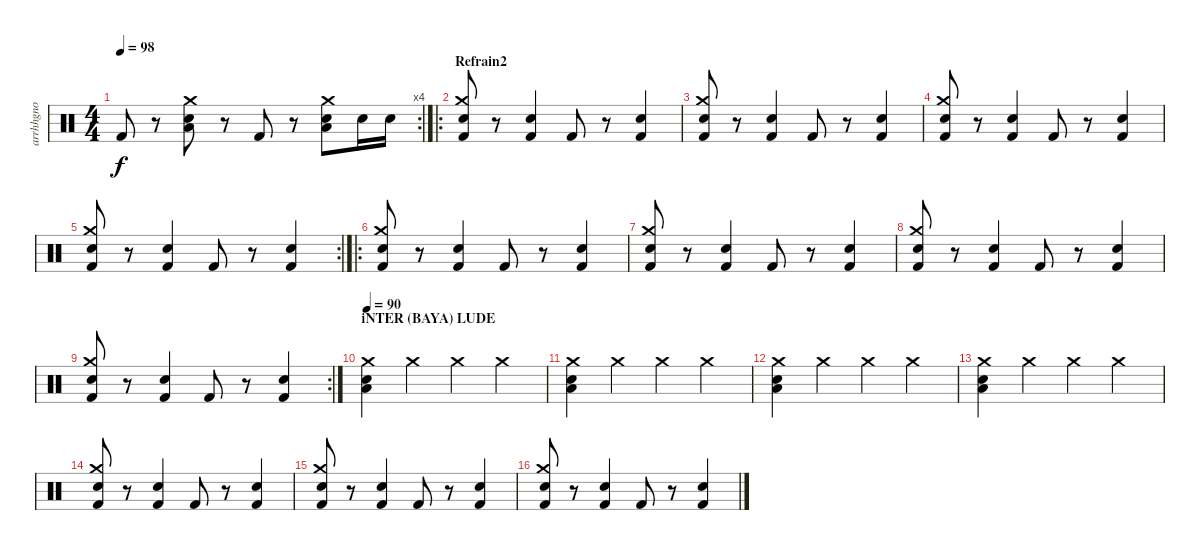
\track ("arrhhgno" "arrhhgno") {instrument percussion}
\staff {score}
\articulation defaults
\rc 4
\ts (4 4)
\tempo 98
\clef neutral
\ks c "Kick (hit) 2".8{dy f}
r.8 ("Crash medium (hit)" "Low Tom (hit)" "Electric Snare (hit)").8 r.8 "Kick (hit) 2".8 r.8 ("Crash medium (hit)" "Low Tom (hit)" "Electric Snare (hit)").8 "Electric Snare (hit)".16 "Electric Snare (hit)".16 |
\ro
\section ("" "Refrain2")
("Crash medium (hit)" "Electric Snare (hit)" "Kick (hit) 2").8 r.8 ("Kick (hit) 2" "Electric Snare (hit)").4 "Kick (hit) 2".8 r.8 ("Kick (hit) 2" "Electric Snare (hit)").4 |
("Crash medium (hit)" "Electric Snare (hit)" "Kick (hit) 2").8 r.8 ("Kick (hit) 2" "Electric Snare (hit)").4 "Kick (hit) 2".8 r.8 ("Kick (hit) 2" "Electric Snare (hit)").4 |
("Crash medium (hit)" "Electric Snare (hit)" "Kick (hit) 2").8 r.8 ("Kick (hit) 2" "Electric Snare (hit)").4 "Kick (hit) 2".8 r.8 ("Kick (hit) 2" "Electric Snare (hit)").4 |
\rc 2
("Crash medium (hit)" "Electric Snare (hit)" "Kick (hit) 2").8 r.8 ("Kick (hit) 2" "Electric Snare (hit)").4 "Kick (hit) 2".8 r.8 ("Kick (hit) 2" "Electric Snare (hit)").4 |
\ro
("Crash medium (hit)" "Electric Snare (hit)" "Kick (hit) 2").8 r.8 ("Kick (hit) 2" "Electric Snare (hit)").4 "Kick (hit) 2".8 r.8 ("Kick (hit) 2" "Electric Snare (hit)").4 |
("Crash medium (hit)" "Electric Snare (hit)" "Kick (hit) 2").8 r.8 ("Kick (hit) 2" "Electric Snare (hit)").4 "Kick (hit) 2".8 r.8 ("Kick (hit) 2" "Electric Snare (hit)").4 |
("Crash medium (hit)" "Electric Snare (hit)" "Kick (hit) 2").8 r.8 ("Kick (hit) 2" "Electric Snare (hit)").4 "Kick (hit) 2".8 r.8 ("Kick (hit) 2" "Electric Snare (hit)").4 |
\rc 2
("Crash medium (hit)" "Electric Snare (hit)" "Kick (hit) 2").8 r.8 ("Kick (hit) 2" "Electric Snare (hit)").4 "Kick (hit) 2".8 r.8 ("Kick (hit) 2" "Electric Snare (hit)").4 |
\section ("" "iNTER (BAYA) LUDE ")
\tempo 90
("Crash medium (hit)" "Low Tom (hit)" "Electric Snare (hit)").4 "Crash medium (hit)".4 "Crash medium (hit)".4 "Crash medium (hit)".4 |
("Crash medium (hit)" "Low Tom (hit)" "Electric Snare (hit)").4 "Crash medium (hit)".4 "Crash medium (hit)".4 "Crash medium (hit)".4 |
("Crash medium (hit)" "Low Tom (hit)" "Electric Snare (hit)").4 "Crash medium (hit)".4 "Crash medium (hit)".4 "Crash medium (hit)".4 |
("Crash medium (hit)" "Low Tom (hit)" "Electric Snare (hit)").4 "Crash medium (hit)".4 "Crash medium (hit)".4 "Crash medium (hit)".4 |
("Crash medium (hit)" "Electric Snare (hit)" "Kick (hit) 2").8 r.8 ("Kick (hit) 2" "Electric Snare (hit)").4 "Kick (hit) 2".8 r.8 ("Kick (hit) 2" "Electric Snare (hit)").4 |
("Crash medium (hit)" "Electric Snare (hit)" "Kick (hit) 2").8 r.8 ("Kick (hit) 2" "Electric Snare (hit)").4 "Kick (hit) 2".8 r.8 ("Kick (hit) 2" "Electric Snare (hit)").4 |
("Crash medium (hit)" "Electric Snare (hit)" "Kick (hit) 2").8 r.8 ("Kick (hit) 2" "Electric Snare (hit)").4 "Kick (hit) 2".8 r.8 ("Kick (hit) 2" "Electric Snare (hit)").4
